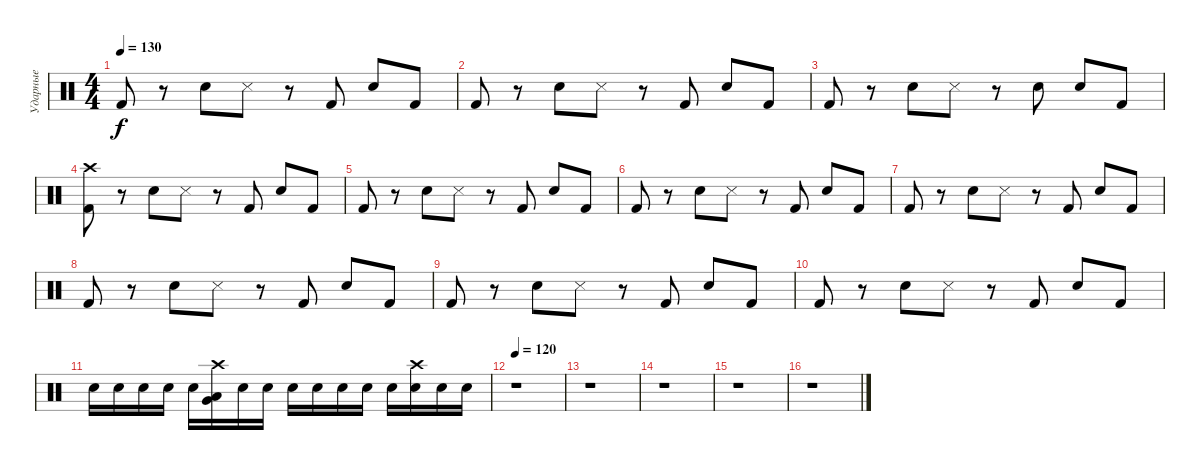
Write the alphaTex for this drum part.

\track ("Ударные" "Ударные") {instrument percussion}
\staff {score}
\articulation defaults
\ts (4 4)
\tempo 130
\clef neutral
\ks c "Kick (hit) 2".8{dy f}
r.8 "Electric Snare (hit)".8 "Snare (side stick) 3".8 r.8 "Kick (hit) 2".8 "Electric Snare (hit)".8 "Kick (hit) 2".8 |
"Kick (hit) 2".8 r.8 "Electric Snare (hit)".8 "Snare (side stick) 3".8 r.8 "Kick (hit) 2".8 "Electric Snare (hit)".8 "Kick (hit) 2".8 |
"Kick (hit) 2".8 r.8 "Electric Snare (hit)".8 "Snare (side stick) 3".8 r.8 "Electric Snare (hit)".8 "Electric Snare (hit)".8 "Kick (hit) 2".8 |
("Kick (hit) 2" "Crash high (hit)").8 r.8 "Electric Snare (hit)".8 "Snare (side stick) 3".8 r.8 "Kick (hit) 2".8 "Electric Snare (hit)".8 "Kick (hit) 2".8 |
"Kick (hit) 2".8 r.8 "Electric Snare (hit)".8 "Snare (side stick) 3".8 r.8 "Kick (hit) 2".8 "Electric Snare (hit)".8 "Kick (hit) 2".8 |
"Kick (hit) 2".8 r.8 "Electric Snare (hit)".8 "Snare (side stick) 3".8 r.8 "Kick (hit) 2".8 "Electric Snare (hit)".8 "Kick (hit) 2".8 |
"Kick (hit) 2".8 r.8 "Electric Snare (hit)".8 "Snare (side stick) 3".8 r.8 "Kick (hit) 2".8 "Electric Snare (hit)".8 "Kick (hit) 2".8 |
"Kick (hit) 2".8 r.8 "Electric Snare (hit)".8 "Snare (side stick) 3".8 r.8 "Kick (hit) 2".8 "Electric Snare (hit)".8 "Kick (hit) 2".8 |
"Kick (hit) 2".8 r.8 "Electric Snare (hit)".8 "Snare (side stick) 3".8 r.8 "Kick (hit) 2".8 "Electric Snare (hit)".8 "Kick (hit) 2".8 |
"Kick (hit) 2".8 r.8 "Electric Snare (hit)".8 "Snare (side stick) 3".8 r.8 "Kick (hit) 2".8 "Electric Snare (hit)".8 "Kick (hit) 2".8 |
"Electric Snare (hit)".16 "Electric Snare (hit)".16 "Electric Snare (hit)".16 "Snare (hit) 2".16 "Electric Snare (hit)".16 ("Very Low Tom (hit)" "Crash high (hit)" "Low Tom (hit)").16 "Electric Snare (hit)".16 "Electric Snare (hit)".16 "Electric Snare (hit)".16 "Electric Snare (hit)".16 "Electric Snare (hit)".16 "Electric Snare (hit)".16 "Electric Snare (hit)".16 ("Crash high (hit)" "Electric Snare (hit)").16 "Electric Snare (hit)".16 "Electric Snare (hit)".16 |
\tempo 120
r.1 |
r.1 |
r.1 |
r.1 |
r.1
